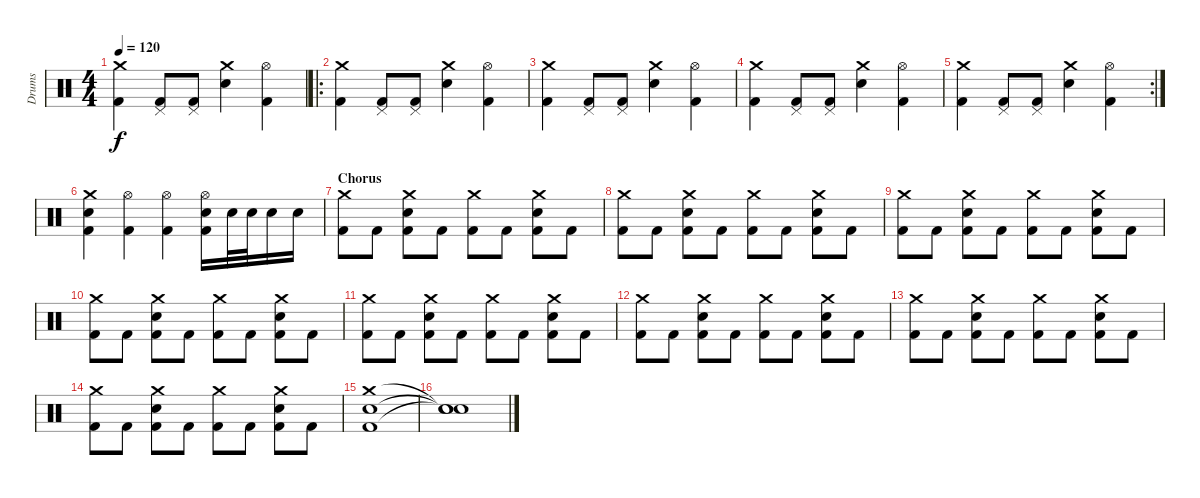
\track ("Drums" "Drums") {instrument percussion}
\staff {score}
\articulation defaults
\ts (4 4)
\tempo 120
\clef neutral
\ks c
("Crash medium (hit)" "Kick (hit) 2").4{dy f} ("Pedal Hi-Hat (hit)" "Kick (hit) 2").8 ("Pedal Hi-Hat (hit)" "Kick (hit) 2").8 ("Crash medium (hit)" "Electric Snare (hit)").4 ("Hi-Hat (open)" "Kick (hit) 2").4 |
\ro
("Crash medium (hit)" "Kick (hit) 2").4 ("Pedal Hi-Hat (hit)" "Kick (hit) 2").8 ("Pedal Hi-Hat (hit)" "Kick (hit) 2").8 ("Crash medium (hit)" "Electric Snare (hit)").4 ("Hi-Hat (open)" "Kick (hit) 2").4 |
("Crash medium (hit)" "Kick (hit) 2").4 ("Pedal Hi-Hat (hit)" "Kick (hit) 2").8 ("Pedal Hi-Hat (hit)" "Kick (hit) 2").8 ("Crash medium (hit)" "Electric Snare (hit)").4 ("Hi-Hat (open)" "Kick (hit) 2").4 |
("Crash medium (hit)" "Kick (hit) 2").4 ("Pedal Hi-Hat (hit)" "Kick (hit) 2").8 ("Pedal Hi-Hat (hit)" "Kick (hit) 2").8 ("Crash medium (hit)" "Electric Snare (hit)").4 ("Hi-Hat (open)" "Kick (hit) 2").4 |
\rc 2
("Crash medium (hit)" "Kick (hit) 2").4 ("Pedal Hi-Hat (hit)" "Kick (hit) 2").8 ("Pedal Hi-Hat (hit)" "Kick (hit) 2").8 ("Crash medium (hit)" "Electric Snare (hit)").4 ("Hi-Hat (open)" "Kick (hit) 2").4 |
("Crash medium (hit)" "Electric Snare (hit)" "Kick (hit) 2").4 ("Hi-Hat (open)" "Kick (hit) 2").4 ("Hi-Hat (open)" "Kick (hit) 2").4 ("Hi-Hat (open)" "Electric Snare (hit)" "Kick (hit) 2").16 "Electric Snare (hit)".32 "Electric Snare (hit)".32 "Electric Snare (hit)".16 "Electric Snare (hit)".16 |
\section ("" "Chorus")
("Crash medium (hit)" "Kick (hit) 2").8 "Kick (hit) 2".8 ("Crash medium (hit)" "Electric Snare (hit)" "Kick (hit) 2").8 "Kick (hit) 2".8 ("Crash medium (hit)" "Kick (hit) 2").8 "Kick (hit) 2".8 ("Crash medium (hit)" "Electric Snare (hit)" "Kick (hit) 2").8 "Kick (hit) 2".8 |
("Crash medium (hit)" "Kick (hit) 2").8 "Kick (hit) 2".8 ("Crash medium (hit)" "Electric Snare (hit)" "Kick (hit) 2").8 "Kick (hit) 2".8 ("Crash medium (hit)" "Kick (hit) 2").8 "Kick (hit) 2".8 ("Crash medium (hit)" "Electric Snare (hit)" "Kick (hit) 2").8 "Kick (hit) 2".8 |
("Crash medium (hit)" "Kick (hit) 2").8 "Kick (hit) 2".8 ("Crash medium (hit)" "Electric Snare (hit)" "Kick (hit) 2").8 "Kick (hit) 2".8 ("Crash medium (hit)" "Kick (hit) 2").8 "Kick (hit) 2".8 ("Crash medium (hit)" "Electric Snare (hit)" "Kick (hit) 2").8 "Kick (hit) 2".8 |
("Crash medium (hit)" "Kick (hit) 2").8 "Kick (hit) 2".8 ("Crash medium (hit)" "Electric Snare (hit)" "Kick (hit) 2").8 "Kick (hit) 2".8 ("Crash medium (hit)" "Kick (hit) 2").8 "Kick (hit) 2".8 ("Crash medium (hit)" "Electric Snare (hit)" "Kick (hit) 2").8 "Kick (hit) 2".8 |
("Crash medium (hit)" "Kick (hit) 2").8 "Kick (hit) 2".8 ("Crash medium (hit)" "Electric Snare (hit)" "Kick (hit) 2").8 "Kick (hit) 2".8 ("Crash medium (hit)" "Kick (hit) 2").8 "Kick (hit) 2".8 ("Crash medium (hit)" "Electric Snare (hit)" "Kick (hit) 2").8 "Kick (hit) 2".8 |
("Crash medium (hit)" "Kick (hit) 2").8 "Kick (hit) 2".8 ("Crash medium (hit)" "Electric Snare (hit)" "Kick (hit) 2").8 "Kick (hit) 2".8 ("Crash medium (hit)" "Kick (hit) 2").8 "Kick (hit) 2".8 ("Crash medium (hit)" "Electric Snare (hit)" "Kick (hit) 2").8 "Kick (hit) 2".8 |
("Crash medium (hit)" "Kick (hit) 2").8 "Kick (hit) 2".8 ("Crash medium (hit)" "Electric Snare (hit)" "Kick (hit) 2").8 "Kick (hit) 2".8 ("Crash medium (hit)" "Kick (hit) 2").8 "Kick (hit) 2".8 ("Crash medium (hit)" "Electric Snare (hit)" "Kick (hit) 2").8 "Kick (hit) 2".8 |
("Crash medium (hit)" "Kick (hit) 2").8 "Kick (hit) 2".8 ("Crash medium (hit)" "Electric Snare (hit)" "Kick (hit) 2").8 "Kick (hit) 2".8 ("Crash medium (hit)" "Kick (hit) 2").8 "Kick (hit) 2".8 ("Crash medium (hit)" "Electric Snare (hit)" "Kick (hit) 2").8 "Kick (hit) 2".8 |
("Crash medium (hit)" "Electric Snare (hit)" "Kick (hit) 2").1 |
("Snare (hit)"{t} "Snare (hit)"{t} "Snare (hit)"{t}).1
